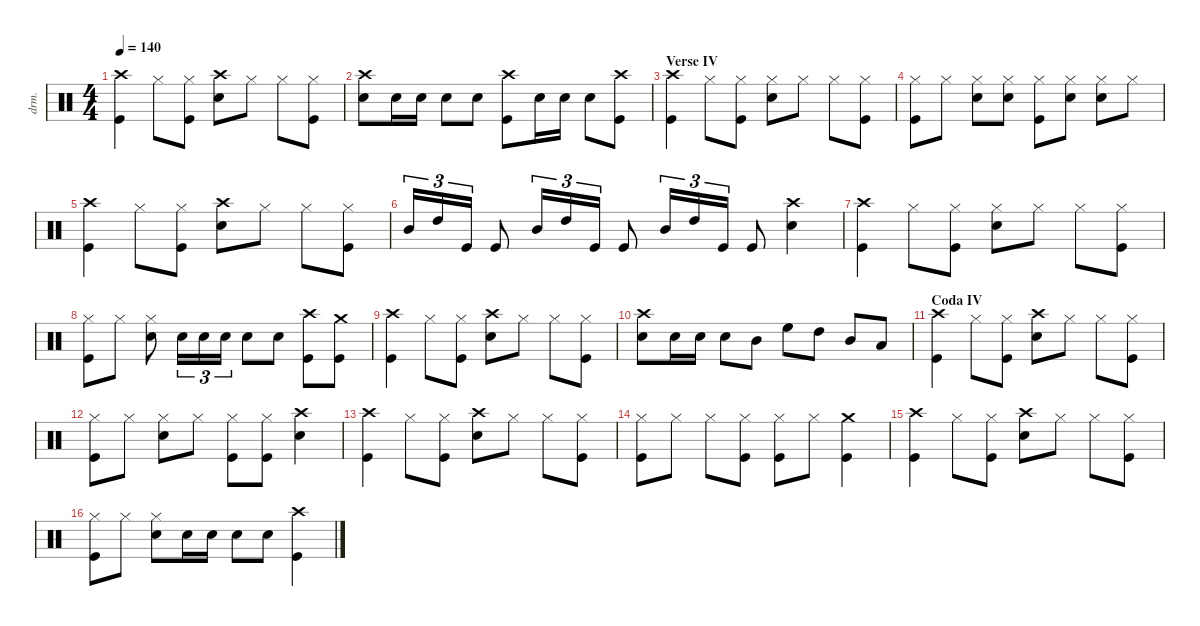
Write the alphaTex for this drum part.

\defaultSystemsLayout 4
\hideDynamics
\bracketExtendMode nobrackets
\otherSystemsTrackNameOrientation horizontal
\track ("Drums" "drm.") {multiBarRest instrument percussion}
\staff
\articulation defaults
\ts (4 4)
\tempo 140
\clef neutral
\ks c
("Crash high (hit)" "Kick (hit)").4{dy f} "Hi-Hat (closed)".8 ("Hi-Hat (closed)" "Kick (hit)").8 ("Snare (hit) 2" "Crash high (hit)").8 "Hi-Hat (closed)".8 "Hi-Hat (closed)".8 ("Hi-Hat (closed)" "Kick (hit)").8 |
("Snare (hit) 2" "Crash high (hit)").8 "Snare (hit) 2".16{dy mf} "Snare (hit) 2".16 "Snare (hit) 2".8 "Snare (hit) 2".8 ("Crash high (hit)" "Kick (hit)").8{dy f} "Snare (hit) 2".16{dy mf} "Snare (hit) 2".16 "Snare (hit) 2".8 ("Kick (hit)" "Crash high (hit)").8{dy f} |
\section ("" "Verse IV")
("Crash high (hit)" "Kick (hit)").4 "Hi-Hat (closed)".8 ("Hi-Hat (closed)" "Kick (hit)").8 ("Snare (hit) 2" "Hi-Hat (closed)").8 "Hi-Hat (closed)".8 "Hi-Hat (closed)".8 ("Hi-Hat (closed)" "Kick (hit)").8 |
("Kick (hit)" "Hi-Hat (closed)").8 "Hi-Hat (closed)".8 ("Hi-Hat (closed)" "Snare (hit) 2").8 ("Hi-Hat (closed)" "Snare (hit) 2").8 ("Kick (hit)" "Hi-Hat (closed)").8 ("Hi-Hat (closed)" "Snare (hit) 2").8 ("Hi-Hat (closed)" "Snare (hit) 2").8 "Hi-Hat (closed)".8 |
("Crash high (hit)" "Kick (hit)").4 "Hi-Hat (closed)".8 ("Hi-Hat (closed)" "Kick (hit)").8 ("Snare (hit) 2" "Crash high (hit)").8 "Hi-Hat (closed)".8 "Hi-Hat (closed)".8 ("Hi-Hat (closed)" "Kick (hit)").8 |
"Mid Tom (hit)".16{tu (3 2) dy ff} "High Tom (hit)".16{tu (3 2)} "Kick (hit)".16{tu (3 2) dy f} "Kick (hit)".8 "Mid Tom (hit)".16{tu (3 2) dy ff} "High Tom (hit)".16{tu (3 2)} "Kick (hit)".16{tu (3 2) dy f} "Kick (hit)".8 "Mid Tom (hit)".16{tu (3 2) dy ff} "High Tom (hit)".16{tu (3 2)} "Kick (hit)".16{tu (3 2) dy f} "Kick (hit)".8 ("Snare (hit) 2" "Crash high (hit)").4 |
("Crash high (hit)" "Kick (hit)").4 "Hi-Hat (closed)".8 ("Hi-Hat (closed)" "Kick (hit)").8 ("Snare (hit) 2" "Hi-Hat (closed)").8 "Hi-Hat (closed)".8 "Hi-Hat (closed)".8 ("Hi-Hat (closed)" "Kick (hit)").8 |
("Kick (hit)" "Hi-Hat (closed)").8 "Hi-Hat (closed)".8 ("Hi-Hat (closed)" "Snare (hit) 2").8 "Snare (hit) 2".16{tu (3 2) dy mf} "Snare (hit) 2".16{tu (3 2)} "Snare (hit) 2".16{tu (3 2)} "Snare (hit) 2".8 "Snare (hit) 2".8 ("Kick (hit)" "Crash high (hit)").8{dy f} ("Kick (hit)" "Crash medium (hit)").8 |
("Crash high (hit)" "Kick (hit)").4 "Hi-Hat (closed)".8 ("Hi-Hat (closed)" "Kick (hit)").8 ("Snare (hit) 2" "Crash high (hit)").8 "Hi-Hat (closed)".8 "Hi-Hat (closed)".8 ("Hi-Hat (closed)" "Kick (hit)").8 |
("Snare (hit) 2" "Crash high (hit)").8 "Snare (hit) 2".16 "Snare (hit) 2".16 "Snare (hit) 2".8 "Mid Tom (hit)".8{dy ff} "High Floor Tom (hit)".8 "High Tom (hit)".8 "Mid Tom (hit)".8 "Low Tom (hit)".8 |
\section ("" "Coda IV")
("Crash high (hit)" "Kick (hit)").4{dy f} "Hi-Hat (closed)".8 ("Hi-Hat (closed)" "Kick (hit)").8 ("Snare (hit) 2" "Crash high (hit)").8 "Hi-Hat (closed)".8 "Hi-Hat (closed)".8 ("Hi-Hat (closed)" "Kick (hit)").8 |
("Kick (hit)" "Hi-Hat (closed)").8 "Hi-Hat (closed)".8 ("Hi-Hat (closed)" "Snare (hit) 2").8 "Hi-Hat (closed)".8 ("Hi-Hat (closed)" "Kick (hit)").8 ("Hi-Hat (closed)" "Kick (hit)").8 ("Snare (hit) 2" "Crash high (hit)").4 |
("Crash high (hit)" "Kick (hit)").4 "Hi-Hat (closed)".8 ("Hi-Hat (closed)" "Kick (hit)").8 ("Snare (hit) 2" "Crash high (hit)").8 "Hi-Hat (closed)".8 "Hi-Hat (closed)".8 ("Hi-Hat (closed)" "Kick (hit)").8 |
("Kick (hit)" "Hi-Hat (closed)").8 "Hi-Hat (closed)".8 "Hi-Hat (closed)".8 ("Hi-Hat (closed)" "Kick (hit)").8 ("Hi-Hat (closed)" "Kick (hit)").8 "Hi-Hat (closed)".8 ("Kick (hit)" "Crash medium (hit)").4 |
("Crash high (hit)" "Kick (hit)").4 "Hi-Hat (closed)".8 ("Hi-Hat (closed)" "Kick (hit)").8 ("Snare (hit) 2" "Crash high (hit)").8 "Hi-Hat (closed)".8 "Hi-Hat (closed)".8 ("Hi-Hat (closed)" "Kick (hit)").8 |
("Kick (hit)" "Hi-Hat (closed)").8 "Hi-Hat (closed)".8 ("Hi-Hat (closed)" "Snare (hit) 2").8 "Snare (hit) 2".16 "Snare (hit) 2".16 "Snare (hit) 2".8 "Snare (hit) 2".8 ("Kick (hit)" "Crash high (hit)").4
